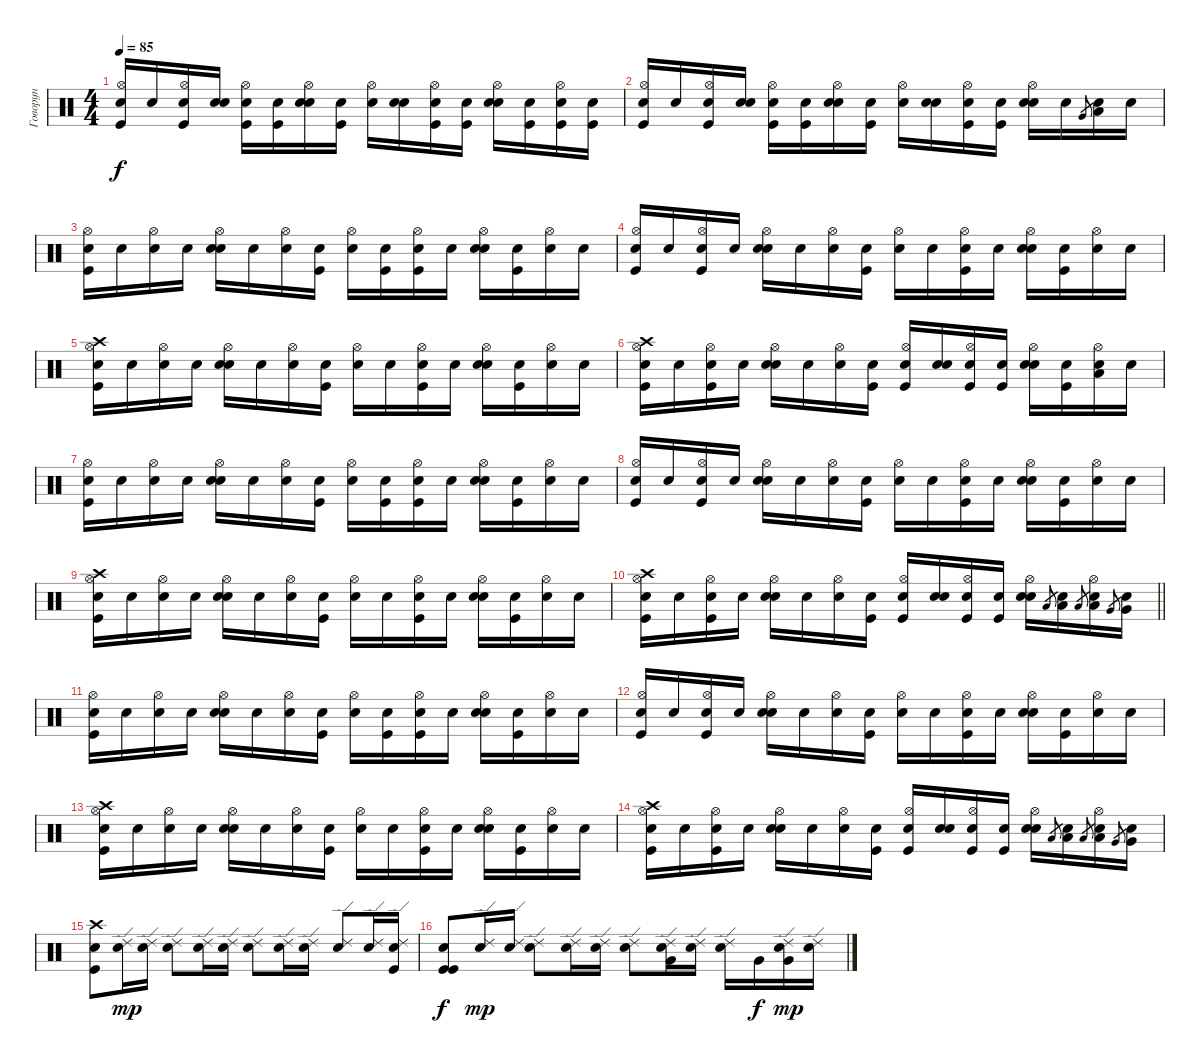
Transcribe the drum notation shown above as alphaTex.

\track ("Говорун" "Говорун") {instrument percussion}
\staff {score}
\articulation defaults
\ts (4 4)
\tempo 85
\clef neutral
\ks c
("Kick (hit)" "Hi-Hat (open)" "Snare (hit)"{x}).16{dy f} "Snare (hit)"{x}.16 ("Kick (hit)" "Hi-Hat (open)" "Snare (hit)"{x}).16 ("Snare (hit) 2" "Snare (hit)"{x}).16 ("Kick (hit)" "Hi-Hat (open)" "Snare (hit)"{x}).16 ("Kick (hit)" "Snare (hit)"{x}).16 ("Snare (hit) 2" "Hi-Hat (open)" "Snare (hit)"{x}).16 ("Kick (hit)" "Snare (hit)"{x}).16 ("Hi-Hat (open)" "Snare (hit)"{x}).16 ("Snare (hit) 2" "Snare (hit)"{x}).16 ("Kick (hit)" "Hi-Hat (open)" "Snare (hit)"{x}).16 ("Kick (hit)" "Snare (hit)"{x}).16 ("Snare (hit) 2" "Hi-Hat (open)" "Snare (hit)"{x}).16 ("Kick (hit)" "Snare (hit)"{x}).16 ("Kick (hit)" "Hi-Hat (open)" "Snare (hit)"{x}).16 ("Kick (hit)" "Snare (hit)"{x}).16 |
("Kick (hit)" "Hi-Hat (open)" "Snare (hit)"{x}).16 "Snare (hit)"{x}.16 ("Kick (hit)" "Hi-Hat (open)" "Snare (hit)"{x}).16 ("Snare (hit) 2" "Snare (hit)"{x}).16 ("Kick (hit)" "Hi-Hat (open)" "Snare (hit)"{x}).16 ("Kick (hit)" "Snare (hit)"{x}).16 ("Snare (hit) 2" "Hi-Hat (open)" "Snare (hit)"{x}).16 ("Kick (hit)" "Snare (hit)"{x}).16 ("Hi-Hat (open)" "Snare (hit)"{x}).16 ("Snare (hit) 2" "Snare (hit)"{x}).16 ("Kick (hit)" "Hi-Hat (open)" "Snare (hit)"{x}).16 ("Kick (hit)" "Snare (hit)"{x}).16 ("Snare (hit) 2" "Hi-Hat (open)" "Snare (hit)"{x}).16 "Snare (hit)"{x}.16 "Very Low Tom (hit)".8{gr} ("Low Tom (hit)" "Snare (hit)"{x}).16 "Snare (hit)"{x}.16 |
("Kick (hit)" "Hi-Hat (open)" "Snare (hit)"{x}).16 "Snare (hit)"{x}.16 ("Hi-Hat (open)" "Snare (hit)"{x}).16 "Snare (hit)"{x}.16 ("Snare (hit) 2" "Hi-Hat (open)" "Snare (hit)"{x}).16 "Snare (hit)"{x}.16 ("Hi-Hat (open)" "Snare (hit)"{x}).16 ("Kick (hit)" "Snare (hit)"{x}).16 ("Hi-Hat (open)" "Snare (hit)"{x}).16 ("Kick (hit)" "Snare (hit)"{x}).16 ("Kick (hit)" "Hi-Hat (open)" "Snare (hit)"{x}).16 "Snare (hit)"{x}.16 ("Snare (hit) 2" "Hi-Hat (open)" "Snare (hit)"{x}).16 ("Kick (hit)" "Snare (hit)"{x}).16 ("Hi-Hat (open)" "Snare (hit)"{x}).16 "Snare (hit)"{x}.16 |
("Kick (hit)" "Hi-Hat (open)" "Snare (hit)"{x}).16 "Snare (hit)"{x}.16 ("Kick (hit)" "Hi-Hat (open)" "Snare (hit)"{x}).16 "Snare (hit)"{x}.16 ("Snare (hit) 2" "Hi-Hat (open)" "Snare (hit)"{x}).16 "Snare (hit)"{x}.16 ("Hi-Hat (open)" "Snare (hit)"{x}).16 ("Kick (hit)" "Snare (hit)"{x}).16 ("Hi-Hat (open)" "Snare (hit)"{x}).16 "Snare (hit)"{x}.16 ("Kick (hit)" "Hi-Hat (open)" "Snare (hit)"{x}).16 "Snare (hit)"{x}.16 ("Snare (hit) 2" "Hi-Hat (open)" "Snare (hit)"{x}).16 ("Kick (hit)" "Snare (hit)"{x}).16 ("Hi-Hat (open)" "Snare (hit)"{x}).16 "Snare (hit)"{x}.16 |
("Kick (hit)" "Hi-Hat (open)" "Crash high (hit)" "Snare (hit)"{x}).16 "Snare (hit)"{x}.16 ("Hi-Hat (open)" "Snare (hit)"{x}).16 "Snare (hit)"{x}.16 ("Snare (hit) 2" "Hi-Hat (open)" "Snare (hit)"{x}).16 "Snare (hit)"{x}.16 ("Hi-Hat (open)" "Snare (hit)"{x}).16 ("Kick (hit)" "Snare (hit)"{x}).16 ("Hi-Hat (open)" "Snare (hit)"{x}).16 "Snare (hit)"{x}.16 ("Kick (hit)" "Hi-Hat (open)" "Snare (hit)"{x}).16 "Snare (hit)"{x}.16 ("Snare (hit) 2" "Hi-Hat (open)" "Snare (hit)"{x}).16 ("Kick (hit)" "Snare (hit)"{x}).16 ("Hi-Hat (open)" "Snare (hit)"{x}).16 "Snare (hit)"{x}.16 |
("Kick (hit)" "Hi-Hat (open)" "Crash high (hit)" "Snare (hit)"{x}).16 "Snare (hit)"{x}.16 ("Kick (hit)" "Hi-Hat (open)" "Snare (hit)"{x}).16 "Snare (hit)"{x}.16 ("Snare (hit) 2" "Hi-Hat (open)" "Snare (hit)"{x}).16 "Snare (hit)"{x}.16 ("Hi-Hat (open)" "Snare (hit)"{x}).16 ("Kick (hit)" "Snare (hit)"{x}).16 ("Kick (hit)" "Hi-Hat (open)" "Snare (hit)"{x}).16 ("Snare (hit) 2" "Snare (hit)"{x}).16 ("Kick (hit)" "Hi-Hat (open)" "Snare (hit)"{x}).16 ("Kick (hit)" "Snare (hit)"{x}).16 ("Snare (hit) 2" "Hi-Hat (open)" "Snare (hit)"{x}).16 ("Kick (hit)" "Snare (hit)"{x}).16 ("Low Tom (hit)" "Hi-Hat (open)" "Snare (hit)"{x}).16 "Snare (hit)"{x}.16 |
("Kick (hit)" "Hi-Hat (open)" "Snare (hit)"{x}).16 "Snare (hit)"{x}.16 ("Hi-Hat (open)" "Snare (hit)"{x}).16 "Snare (hit)"{x}.16 ("Snare (hit) 2" "Hi-Hat (open)" "Snare (hit)"{x}).16 "Snare (hit)"{x}.16 ("Hi-Hat (open)" "Snare (hit)"{x}).16 ("Kick (hit)" "Snare (hit)"{x}).16 ("Hi-Hat (open)" "Snare (hit)"{x}).16 ("Kick (hit)" "Snare (hit)"{x}).16 ("Kick (hit)" "Hi-Hat (open)" "Snare (hit)"{x}).16 "Snare (hit)"{x}.16 ("Snare (hit) 2" "Hi-Hat (open)" "Snare (hit)"{x}).16 ("Kick (hit)" "Snare (hit)"{x}).16 ("Hi-Hat (open)" "Snare (hit)"{x}).16 "Snare (hit)"{x}.16 |
("Kick (hit)" "Hi-Hat (open)" "Snare (hit)"{x}).16 "Snare (hit)"{x}.16 ("Kick (hit)" "Hi-Hat (open)" "Snare (hit)"{x}).16 "Snare (hit)"{x}.16 ("Snare (hit) 2" "Hi-Hat (open)" "Snare (hit)"{x}).16 "Snare (hit)"{x}.16 ("Hi-Hat (open)" "Snare (hit)"{x}).16 ("Kick (hit)" "Snare (hit)"{x}).16 ("Hi-Hat (open)" "Snare (hit)"{x}).16 "Snare (hit)"{x}.16 ("Kick (hit)" "Hi-Hat (open)" "Snare (hit)"{x}).16 "Snare (hit)"{x}.16 ("Snare (hit) 2" "Hi-Hat (open)" "Snare (hit)"{x}).16 ("Kick (hit)" "Snare (hit)"{x}).16 ("Hi-Hat (open)" "Snare (hit)"{x}).16 "Snare (hit)"{x}.16 |
("Kick (hit)" "Hi-Hat (open)" "Crash high (hit)" "Snare (hit)"{x}).16 "Snare (hit)"{x}.16 ("Hi-Hat (open)" "Snare (hit)"{x}).16 "Snare (hit)"{x}.16 ("Snare (hit) 2" "Hi-Hat (open)" "Snare (hit)"{x}).16 "Snare (hit)"{x}.16 ("Hi-Hat (open)" "Snare (hit)"{x}).16 ("Kick (hit)" "Snare (hit)"{x}).16 ("Hi-Hat (open)" "Snare (hit)"{x}).16 "Snare (hit)"{x}.16 ("Kick (hit)" "Hi-Hat (open)" "Snare (hit)"{x}).16 "Snare (hit)"{x}.16 ("Snare (hit) 2" "Hi-Hat (open)" "Snare (hit)"{x}).16 ("Kick (hit)" "Snare (hit)"{x}).16 ("Hi-Hat (open)" "Snare (hit)"{x}).16 "Snare (hit)"{x}.16 |
\barLineRight lightlight
("Kick (hit)" "Hi-Hat (open)" "Crash high (hit)" "Snare (hit)"{x}).16 "Snare (hit)"{x}.16 ("Kick (hit)" "Hi-Hat (open)" "Snare (hit)"{x}).16 "Snare (hit)"{x}.16 ("Snare (hit) 2" "Hi-Hat (open)" "Snare (hit)"{x}).16 "Snare (hit)"{x}.16 ("Hi-Hat (open)" "Snare (hit)"{x}).16 ("Kick (hit)" "Snare (hit)"{x}).16 ("Kick (hit)" "Hi-Hat (open)" "Snare (hit)"{x}).16 ("Snare (hit) 2" "Snare (hit)"{x}).16 ("Kick (hit)" "Hi-Hat (open)" "Snare (hit)"{x}).16 ("Kick (hit)" "Snare (hit)"{x}).16 ("Snare (hit) 2" "Hi-Hat (open)" "Snare (hit)"{x}).16 "Low Tom (hit)".8{gr} ("Low Tom (hit)" "Snare (hit)"{x}).16 "Low Tom (hit)".8{gr} ("Low Tom (hit)" "Hi-Hat (open)" "Snare (hit)"{x}).16 "Very Low Tom (hit)".8{gr} ("Very Low Tom (hit)" "Snare (hit)"{x}).16 |
("Kick (hit)" "Hi-Hat (open)" "Snare (hit)"{x}).16 "Snare (hit)"{x}.16 ("Hi-Hat (open)" "Snare (hit)"{x}).16 "Snare (hit)"{x}.16 ("Snare (hit) 2" "Hi-Hat (open)" "Snare (hit)"{x}).16 "Snare (hit)"{x}.16 ("Hi-Hat (open)" "Snare (hit)"{x}).16 ("Kick (hit)" "Snare (hit)"{x}).16 ("Hi-Hat (open)" "Snare (hit)"{x}).16 ("Kick (hit)" "Snare (hit)"{x}).16 ("Kick (hit)" "Hi-Hat (open)" "Snare (hit)"{x}).16 "Snare (hit)"{x}.16 ("Snare (hit) 2" "Hi-Hat (open)" "Snare (hit)"{x}).16 ("Kick (hit)" "Snare (hit)"{x}).16 ("Hi-Hat (open)" "Snare (hit)"{x}).16 "Snare (hit)"{x}.16 |
("Kick (hit)" "Hi-Hat (open)" "Snare (hit)"{x}).16 "Snare (hit)"{x}.16 ("Kick (hit)" "Hi-Hat (open)" "Snare (hit)"{x}).16 "Snare (hit)"{x}.16 ("Snare (hit) 2" "Hi-Hat (open)" "Snare (hit)"{x}).16 "Snare (hit)"{x}.16 ("Hi-Hat (open)" "Snare (hit)"{x}).16 ("Kick (hit)" "Snare (hit)"{x}).16 ("Hi-Hat (open)" "Snare (hit)"{x}).16 "Snare (hit)"{x}.16 ("Kick (hit)" "Hi-Hat (open)" "Snare (hit)"{x}).16 "Snare (hit)"{x}.16 ("Snare (hit) 2" "Hi-Hat (open)" "Snare (hit)"{x}).16 ("Kick (hit)" "Snare (hit)"{x}).16 ("Hi-Hat (open)" "Snare (hit)"{x}).16 "Snare (hit)"{x}.16 |
("Kick (hit)" "Hi-Hat (open)" "Crash high (hit)" "Snare (hit)"{x}).16 "Snare (hit)"{x}.16 ("Hi-Hat (open)" "Snare (hit)"{x}).16 "Snare (hit)"{x}.16 ("Snare (hit) 2" "Hi-Hat (open)" "Snare (hit)"{x}).16 "Snare (hit)"{x}.16 ("Hi-Hat (open)" "Snare (hit)"{x}).16 ("Kick (hit)" "Snare (hit)"{x}).16 ("Hi-Hat (open)" "Snare (hit)"{x}).16 "Snare (hit)"{x}.16 ("Kick (hit)" "Hi-Hat (open)" "Snare (hit)"{x}).16 "Snare (hit)"{x}.16 ("Snare (hit) 2" "Hi-Hat (open)" "Snare (hit)"{x}).16 ("Kick (hit)" "Snare (hit)"{x}).16 ("Hi-Hat (open)" "Snare (hit)"{x}).16 "Snare (hit)"{x}.16 |
("Kick (hit)" "Hi-Hat (open)" "Crash high (hit)" "Snare (hit)"{x}).16 "Snare (hit)"{x}.16 ("Kick (hit)" "Hi-Hat (open)" "Snare (hit)"{x}).16 "Snare (hit)"{x}.16 ("Snare (hit) 2" "Hi-Hat (open)" "Snare (hit)"{x}).16 "Snare (hit)"{x}.16 ("Hi-Hat (open)" "Snare (hit)"{x}).16 ("Kick (hit)" "Snare (hit)"{x}).16 ("Kick (hit)" "Hi-Hat (open)" "Snare (hit)"{x}).16 ("Snare (hit) 2" "Snare (hit)"{x}).16 ("Kick (hit)" "Hi-Hat (open)" "Snare (hit)"{x}).16 ("Kick (hit)" "Snare (hit)"{x}).16 ("Snare (hit) 2" "Hi-Hat (open)" "Snare (hit)"{x}).16 "Low Tom (hit)".8{gr} ("Low Tom (hit)" "Snare (hit)"{x}).16 "Low Tom (hit)".8{gr} ("Low Tom (hit)" "Hi-Hat (open)" "Snare (hit)"{x}).16 "Very Low Tom (hit)".8{gr} ("Very Low Tom (hit)" "Snare (hit)"{x}).16 |
("Kick (hit)" "Crash high (hit)" "Snare (hit)"{x}).8 ("Ride (edge) 2" "Snare (hit)"{x}).16{dy mp} ("Ride (edge) 2" "Snare (hit)"{x}).16 ("Ride (edge) 2" "Snare (hit)"{x}).8 ("Ride (edge) 2" "Snare (hit)"{x}).16 ("Ride (edge) 2" "Snare (hit)"{x}).16 ("Ride (edge) 2" "Snare (hit)"{x}).8 ("Ride (edge) 2" "Snare (hit)"{x}).16 ("Ride (edge) 2" "Snare (hit)"{x}).16 ("Ride (edge) 2" "Snare (hit)"{x}).8 ("Ride (edge) 2" "Snare (hit)"{x}).16 ("Ride (edge) 2" "Kick (hit)" "Snare (hit)"{x}).16 |
("Kick (hit)" "Kick (hit)" "Snare (hit)"{x}).8{dy f} ("Ride (edge) 2" "Snare (hit)"{x}).16{dy mp} ("Ride (edge) 2" "Snare (hit)"{x}).16 ("Ride (edge) 2" "Snare (hit)"{x}).8 ("Ride (edge) 2" "Snare (hit)"{x}).16 ("Ride (edge) 2" "Snare (hit)"{x}).16 ("Ride (edge) 2" "Snare (hit)"{x}).8 ("Very Low Tom (hit)" "Ride (edge) 2" "Snare (hit)"{x}).16 ("Ride (edge) 2" "Snare (hit)"{x}).16 ("Ride (edge) 2" "Snare (hit)"{x}).16 "Very Low Tom (hit)".16{dy f} ("Very Low Tom (hit)" "Ride (edge) 2" "Snare (hit)"{x}).16{dy mp} ("Ride (edge) 2" "Snare (hit)"{x}).16
